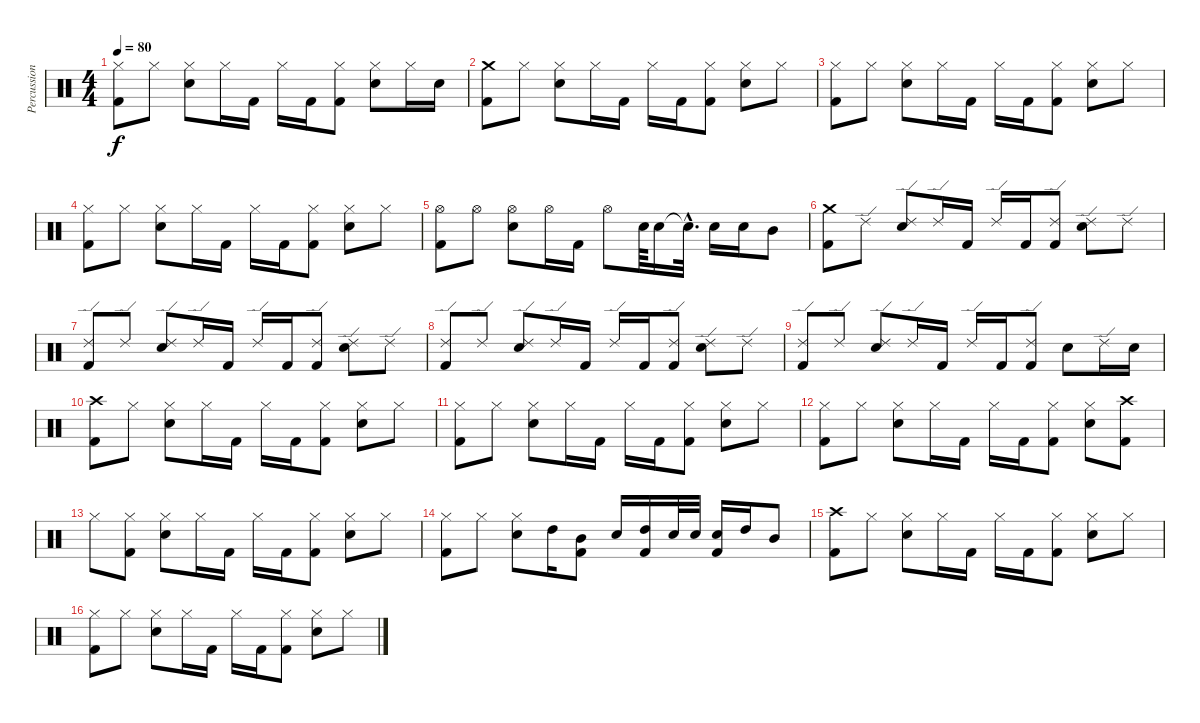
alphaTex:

\track ("Percussion" "Percussion") {instrument percussion}
\staff {score}
\articulation defaults
\ts (4 4)
\tempo 80
\clef neutral
\ks c
("Hi-Hat (closed)" "Kick (hit) 2").8{dy f} "Hi-Hat (closed)".8 ("Hi-Hat (closed)" "Snare (hit) 2").8 "Hi-Hat (closed)".16 "Kick (hit) 2".16 "Hi-Hat (closed)".16 "Kick (hit) 2".16 ("Hi-Hat (closed)" "Kick (hit) 2").8 ("Hi-Hat (closed)" "Snare (hit) 2").8 "Hi-Hat (closed)".16 "Snare (hit) 2".16 |
("Crash medium (hit)" "Kick (hit) 2").8 "Hi-Hat (closed)".8 ("Hi-Hat (closed)" "Snare (hit) 2").8 "Hi-Hat (closed)".16 "Kick (hit) 2".16 "Hi-Hat (closed)".16 "Kick (hit) 2".16 ("Hi-Hat (closed)" "Kick (hit) 2").8 ("Hi-Hat (closed)" "Snare (hit) 2").8 "Hi-Hat (closed)".8 |
("Hi-Hat (closed)" "Kick (hit) 2").8 "Hi-Hat (closed)".8 ("Hi-Hat (closed)" "Snare (hit) 2").8 "Hi-Hat (closed)".16 "Kick (hit) 2".16 "Hi-Hat (closed)".16 "Kick (hit) 2".16 ("Hi-Hat (closed)" "Kick (hit) 2").8 ("Hi-Hat (closed)" "Snare (hit) 2").8 "Hi-Hat (closed)".8 |
("Hi-Hat (closed)" "Kick (hit) 2").8 "Hi-Hat (closed)".8 ("Hi-Hat (closed)" "Snare (hit) 2").8 "Hi-Hat (closed)".16 "Kick (hit) 2".16 "Hi-Hat (closed)".16 "Kick (hit) 2".16 ("Hi-Hat (closed)" "Kick (hit) 2").8 ("Hi-Hat (closed)" "Snare (hit) 2").8 "Hi-Hat (closed)".8 |
("Hi-Hat (open)" "Kick (hit) 2").8 "Hi-Hat (open)".8 ("Hi-Hat (open)" "Snare (hit) 2").8 "Hi-Hat (open)".16 "Kick (hit) 2".16 "Hi-Hat (open)".8 "Snare (hit) 2".64 "Snare (hit) 2".16 "Electric Snare (hit)"{hac t}.32{d} "Snare (hit) 2".16 "Snare (hit) 2".16 "Mid Tom (hit)".8 |
("Crash medium (hit)" "Kick (hit) 2").8 "Ride (edge) 2".8 ("Ride (edge) 2" "Snare (hit) 2").8 "Ride (edge) 2".16 "Kick (hit) 2".16 "Ride (edge) 2".16 "Kick (hit) 2".16 ("Ride (edge) 2" "Kick (hit) 2").8 ("Ride (edge) 2" "Snare (hit) 2").8 "Ride (edge) 2".8 |
("Ride (edge) 2" "Kick (hit) 2").8 "Ride (edge) 2".8 ("Ride (edge) 2" "Snare (hit) 2").8 "Ride (edge) 2".16 "Kick (hit) 2".16 "Ride (edge) 2".16 "Kick (hit) 2".16 ("Ride (edge) 2" "Kick (hit) 2").8 ("Ride (edge) 2" "Snare (hit) 2").8 "Ride (edge) 2".8 |
("Ride (edge) 2" "Kick (hit) 2").8 "Ride (edge) 2".8 ("Ride (edge) 2" "Snare (hit) 2").8 "Ride (edge) 2".16 "Kick (hit) 2".16 "Ride (edge) 2".16 "Kick (hit) 2".16 ("Ride (edge) 2" "Kick (hit) 2").8 ("Ride (edge) 2" "Snare (hit) 2").8 "Ride (edge) 2".8 |
("Ride (edge) 2" "Kick (hit) 2").8 "Ride (edge) 2".8 ("Ride (edge) 2" "Snare (hit) 2").8 "Ride (edge) 2".16 "Kick (hit) 2".16 "Ride (edge) 2".16 "Kick (hit) 2".16 ("Ride (edge) 2" "Kick (hit) 2").8 "Snare (hit) 2".8 "Ride (edge) 2".16 "Snare (hit) 2".16 |
("Crash high (hit)" "Kick (hit) 2").8 "Hi-Hat (closed)".8 ("Hi-Hat (closed)" "Snare (hit) 2").8 "Hi-Hat (closed)".16 "Kick (hit) 2".16 "Hi-Hat (closed)".16 "Kick (hit) 2".16 ("Hi-Hat (closed)" "Kick (hit) 2").8 ("Hi-Hat (closed)" "Snare (hit) 2").8 "Hi-Hat (closed)".8 |
("Hi-Hat (closed)" "Kick (hit) 2").8 "Hi-Hat (closed)".8 ("Hi-Hat (closed)" "Snare (hit) 2").8 "Hi-Hat (closed)".16 "Kick (hit) 2".16 "Hi-Hat (closed)".16 "Kick (hit) 2".16 ("Hi-Hat (closed)" "Kick (hit) 2").8 ("Hi-Hat (closed)" "Snare (hit) 2").8 "Hi-Hat (closed)".8 |
("Hi-Hat (closed)" "Kick (hit) 2").8 "Hi-Hat (closed)".8 ("Hi-Hat (closed)" "Snare (hit) 2").8 "Hi-Hat (closed)".16 "Kick (hit) 2".16 "Hi-Hat (closed)".16 "Kick (hit) 2".16 ("Hi-Hat (closed)" "Kick (hit) 2").8 ("Hi-Hat (closed)" "Snare (hit) 2").8 ("Crash high (hit)" "Kick (hit) 2").8 |
"Hi-Hat (closed)".8 ("Hi-Hat (closed)" "Kick (hit) 2").8 ("Hi-Hat (closed)" "Snare (hit) 2").8 "Hi-Hat (closed)".16 "Kick (hit) 2".16 "Hi-Hat (closed)".16 "Kick (hit) 2".16 ("Hi-Hat (closed)" "Kick (hit) 2").8 ("Hi-Hat (closed)" "Snare (hit) 2").8 "Hi-Hat (closed)".8 |
("Hi-Hat (closed)" "Kick (hit) 2").8 "Hi-Hat (closed)".8 ("Hi-Hat (closed)" "Snare (hit) 2").8 "High Tom (hit)".16 ("Mid Tom (hit)" "Kick (hit) 2").8 "Snare (hit) 2".16 ("High Tom (hit)" "Kick (hit) 2").16 "Snare (hit) 2".32 "Snare (hit) 2".32 ("Snare (hit) 2" "Kick (hit) 2").16 "High Tom (hit)".16 "Mid Tom (hit)".8 |
("Crash high (hit)" "Kick (hit) 2").8 "Hi-Hat (closed)".8 ("Hi-Hat (closed)" "Snare (hit) 2").8 "Hi-Hat (closed)".16 "Kick (hit) 2".16 "Hi-Hat (closed)".16 "Kick (hit) 2".16 ("Hi-Hat (closed)" "Kick (hit) 2").8 ("Hi-Hat (closed)" "Snare (hit) 2").8 "Hi-Hat (closed)".8 |
("Hi-Hat (closed)" "Kick (hit) 2").8 "Hi-Hat (closed)".8 ("Hi-Hat (closed)" "Snare (hit) 2").8 "Hi-Hat (closed)".16 "Kick (hit) 2".16 "Hi-Hat (closed)".16 "Kick (hit) 2".16 ("Hi-Hat (closed)" "Kick (hit) 2").8 ("Hi-Hat (closed)" "Snare (hit) 2").8 "Hi-Hat (closed)".8
